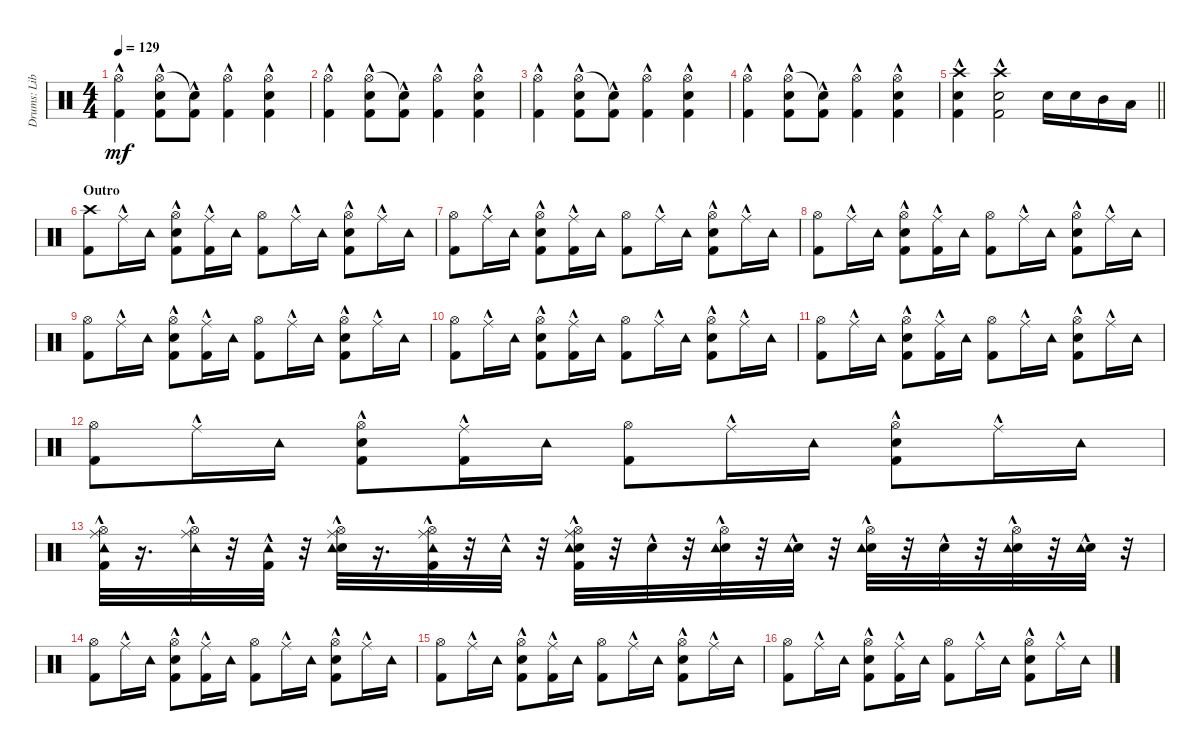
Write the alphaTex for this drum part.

\track ("Drums: Liberty" "Drums: Lib") {instrument percussion}
\staff {score}
\articulation defaults
\ts (4 4)
\tempo 129
\clef neutral
\ks c
("Hi-Hat (open)" "Kick (hit) 2"{hac}).4{dy mf} ("Hi-Hat (open)" "Snare (hit) 2"{hac} "Kick (hit) 2"{hac}).8 ("Snare (hit)"{t} "Kick (hit) 2"{hac}).8 ("Hi-Hat (open)"{hac} "Kick (hit) 2"{hac}).4 ("Hi-Hat (open)"{hac} "Snare (hit) 2"{hac} "Kick (hit) 2"{hac}).4 |
("Hi-Hat (open)" "Kick (hit) 2"{hac}).4 ("Hi-Hat (open)" "Snare (hit) 2"{hac} "Kick (hit) 2"{hac}).8 ("Snare (hit)"{t} "Kick (hit) 2"{hac}).8 ("Hi-Hat (open)"{hac} "Kick (hit) 2"{hac}).4 ("Hi-Hat (open)"{hac} "Snare (hit) 2"{hac} "Kick (hit) 2"{hac}).4 |
("Hi-Hat (open)" "Kick (hit) 2"{hac}).4 ("Hi-Hat (open)" "Snare (hit) 2"{hac} "Kick (hit) 2"{hac}).8 ("Snare (hit)"{t} "Kick (hit) 2"{hac}).8 ("Hi-Hat (open)"{hac} "Kick (hit) 2"{hac}).4 ("Hi-Hat (open)"{hac} "Snare (hit) 2"{hac} "Kick (hit) 2"{hac}).4 |
("Hi-Hat (open)" "Kick (hit) 2"{hac}).4 ("Hi-Hat (open)" "Snare (hit) 2"{hac} "Kick (hit) 2"{hac}).8 ("Snare (hit)"{t} "Kick (hit) 2"{hac}).8 ("Hi-Hat (open)"{hac} "Kick (hit) 2"{hac}).4 ("Hi-Hat (open)"{hac} "Snare (hit) 2"{hac} "Kick (hit) 2"{hac}).4 |
\barLineRight lightlight
("Crash high (hit)" "Snare (hit) 2" "Kick (hit) 2"{hac}).4 ("Crash high (hit)" "Snare (hit) 2" "Kick (hit) 2"{hac}).2 "Snare (hit) 2".16 "Snare (hit) 2".16 "Mid Tom (hit)".16 "Low Tom (hit)".16 |
\section ("" "Outro")
("Crash high (hit)" "Kick (hit) 2").8 "Ride (middle)"{hac}.16 "Tambourine (hit)".16 ("Hi-Hat (open)"{hac} "Snare (hit) 2"{hac} "Kick (hit) 2").8 ("Ride (middle)"{hac} "Kick (hit) 2").16 "Tambourine (hit)".16 ("Hi-Hat (open)" "Kick (hit) 2").8 "Ride (middle)"{hac}.16 "Tambourine (hit)".16 ("Hi-Hat (open)"{hac} "Snare (hit) 2"{hac} "Kick (hit) 2").8 "Ride (middle)"{hac}.16 "Tambourine (hit)".16 |
("Hi-Hat (open)" "Kick (hit) 2").8 "Ride (middle)"{hac}.16 "Tambourine (hit)".16 ("Hi-Hat (open)"{hac} "Snare (hit) 2"{hac} "Kick (hit) 2").8 ("Ride (middle)"{hac} "Kick (hit) 2").16 "Tambourine (hit)".16 ("Hi-Hat (open)" "Kick (hit) 2").8 "Ride (middle)"{hac}.16 "Tambourine (hit)".16 ("Hi-Hat (open)"{hac} "Snare (hit) 2"{hac} "Kick (hit) 2").8 "Ride (middle)"{hac}.16 "Tambourine (hit)".16 |
("Hi-Hat (open)" "Kick (hit) 2").8 "Ride (middle)"{hac}.16 "Tambourine (hit)".16 ("Hi-Hat (open)"{hac} "Snare (hit) 2"{hac} "Kick (hit) 2").8 ("Ride (middle)"{hac} "Kick (hit) 2").16 "Tambourine (hit)".16 ("Hi-Hat (open)" "Kick (hit) 2").8 "Ride (middle)"{hac}.16 "Tambourine (hit)".16 ("Hi-Hat (open)"{hac} "Snare (hit) 2"{hac} "Kick (hit) 2").8 "Ride (middle)"{hac}.16 "Tambourine (hit)".16 |
("Hi-Hat (open)" "Kick (hit) 2").8 "Ride (middle)"{hac}.16 "Tambourine (hit)".16 ("Hi-Hat (open)"{hac} "Snare (hit) 2"{hac} "Kick (hit) 2").8 ("Ride (middle)"{hac} "Kick (hit) 2").16 "Tambourine (hit)".16 ("Hi-Hat (open)" "Kick (hit) 2").8 "Ride (middle)"{hac}.16 "Tambourine (hit)".16 ("Hi-Hat (open)"{hac} "Snare (hit) 2"{hac} "Kick (hit) 2").8 "Ride (middle)"{hac}.16 "Tambourine (hit)".16 |
("Hi-Hat (open)" "Kick (hit) 2").8 "Ride (middle)"{hac}.16 "Tambourine (hit)".16 ("Hi-Hat (open)"{hac} "Snare (hit) 2"{hac} "Kick (hit) 2").8 ("Ride (middle)"{hac} "Kick (hit) 2").16 "Tambourine (hit)".16 ("Hi-Hat (open)" "Kick (hit) 2").8 "Ride (middle)"{hac}.16 "Tambourine (hit)".16 ("Hi-Hat (open)"{hac} "Snare (hit) 2"{hac} "Kick (hit) 2").8 "Ride (middle)"{hac}.16 "Tambourine (hit)".16 |
("Hi-Hat (open)" "Kick (hit) 2").8 "Ride (middle)"{hac}.16 "Tambourine (hit)".16 ("Hi-Hat (open)"{hac} "Snare (hit) 2"{hac} "Kick (hit) 2").8 ("Ride (middle)"{hac} "Kick (hit) 2").16 "Tambourine (hit)".16 ("Hi-Hat (open)" "Kick (hit) 2").8 "Ride (middle)"{hac}.16 "Tambourine (hit)".16 ("Hi-Hat (open)"{hac} "Snare (hit) 2"{hac} "Kick (hit) 2").8 "Ride (middle)"{hac}.16 "Tambourine (hit)".16 |
("Hi-Hat (open)" "Kick (hit) 2").8 "Ride (middle)"{hac}.16 "Tambourine (hit)".16 ("Hi-Hat (open)"{hac} "Snare (hit) 2"{hac} "Kick (hit) 2").8 ("Ride (middle)"{hac} "Kick (hit) 2").16 "Tambourine (hit)".16 ("Hi-Hat (open)" "Kick (hit) 2").8 "Ride (middle)"{hac}.16 "Tambourine (hit)".16 ("Hi-Hat (open)"{hac} "Snare (hit) 2"{hac} "Kick (hit) 2").8 "Ride (middle)"{hac}.16 "Tambourine (hit)".16 |
("Kick (hit) 2"{hac} "Hi-Hat (open)"{hac} "Ride (middle)"{hac} "Tambourine (hit)"{hac}).32 r.16{d} ("Hi-Hat (open)"{hac} "Ride (middle)"{hac} "Tambourine (hit)"{hac}).32 r.32 ("Kick (hit) 2"{hac} "Tambourine (hit)"{hac}).32 r.32 ("Snare (hit) 2"{hac} "Hi-Hat (open)"{hac} "Ride (middle)"{hac} "Tambourine (hit)"{hac}).32 r.16{d} ("Kick (hit) 2"{hac} "Hi-Hat (open)"{hac} "Ride (middle)"{hac} "Tambourine (hit)"{hac}).32 r.32 "Tambourine (hit)"{hac}.32 r.32 ("Kick (hit) 2"{hac} "Snare (hit) 2"{hac} "Hi-Hat (open)"{hac} "Ride (middle)"{hac} "Tambourine (hit)"{hac}).32 r.32 "Snare (hit) 2"{hac}.32 r.32 ("Snare (hit) 2"{hac} "Hi-Hat (open)"{hac} "Tambourine (hit)"{hac}).32 r.32 ("Snare (hit) 2"{hac} "Tambourine (hit)"{hac}).32 r.32 ("Snare (hit) 2"{hac} "Hi-Hat (open)"{hac} "Tambourine (hit)"{hac}).32 r.32 "Snare (hit) 2"{hac}.32 r.32 ("Snare (hit) 2"{hac} "Hi-Hat (open)"{hac} "Tambourine (hit)"{hac}).32 r.32 ("Snare (hit) 2"{hac} "Tambourine (hit)"{hac}).32 r.32 |
("Hi-Hat (open)" "Kick (hit) 2").8 "Ride (middle)"{hac}.16 "Tambourine (hit)".16 ("Hi-Hat (open)"{hac} "Snare (hit) 2"{hac} "Kick (hit) 2").8 ("Ride (middle)"{hac} "Kick (hit) 2").16 "Tambourine (hit)".16 ("Hi-Hat (open)" "Kick (hit) 2").8 "Ride (middle)"{hac}.16 "Tambourine (hit)".16 ("Hi-Hat (open)"{hac} "Snare (hit) 2"{hac} "Kick (hit) 2").8 "Ride (middle)"{hac}.16 "Tambourine (hit)".16 |
("Hi-Hat (open)" "Kick (hit) 2").8 "Ride (middle)"{hac}.16 "Tambourine (hit)".16 ("Hi-Hat (open)"{hac} "Snare (hit) 2"{hac} "Kick (hit) 2").8 ("Ride (middle)"{hac} "Kick (hit) 2").16 "Tambourine (hit)".16 ("Hi-Hat (open)" "Kick (hit) 2").8 "Ride (middle)"{hac}.16 "Tambourine (hit)".16 ("Hi-Hat (open)"{hac} "Snare (hit) 2"{hac} "Kick (hit) 2").8 "Ride (middle)"{hac}.16 "Tambourine (hit)".16 |
("Hi-Hat (open)" "Kick (hit) 2").8 "Ride (middle)"{hac}.16 "Tambourine (hit)".16 ("Hi-Hat (open)"{hac} "Snare (hit) 2"{hac} "Kick (hit) 2").8 ("Ride (middle)"{hac} "Kick (hit) 2").16 "Tambourine (hit)".16 ("Hi-Hat (open)" "Kick (hit) 2").8 "Ride (middle)"{hac}.16 "Tambourine (hit)".16 ("Hi-Hat (open)"{hac} "Snare (hit) 2"{hac} "Kick (hit) 2").8 "Ride (middle)"{hac}.16 "Tambourine (hit)".16
